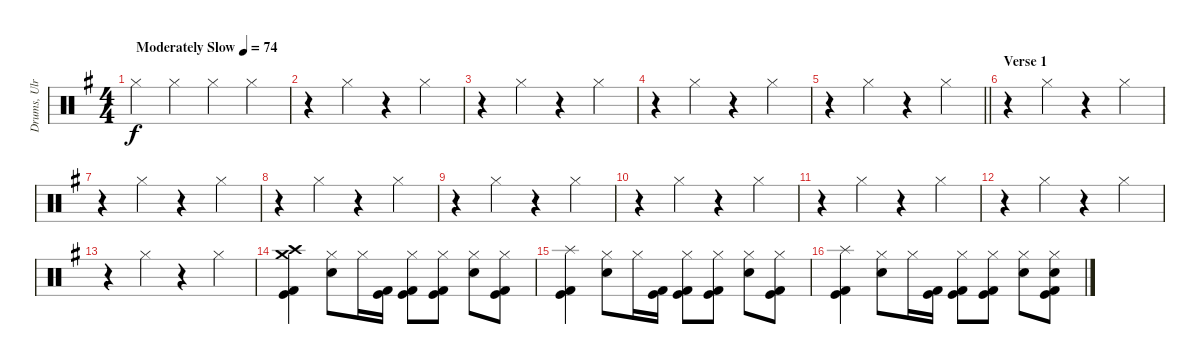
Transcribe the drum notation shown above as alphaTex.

\track ("Drums, Ulrich" "Drums, Ulr") {instrument percussion}
\staff {score}
\articulation defaults
\ts (4 4)
\tempo (74 "Moderately Slow")
\clef neutral
\ks g "Hi-Hat (closed)".4{dy f} "Hi-Hat (closed)".4 "Hi-Hat (closed)".4 "Hi-Hat (closed)".4
|
r.4 "Hi-Hat (closed)".4 r.4 "Hi-Hat (closed)".4 |
r.4 "Hi-Hat (closed)".4 r.4 "Hi-Hat (closed)".4 |
r.4 "Hi-Hat (closed)".4 r.4 "Hi-Hat (closed)".4 |
\barLineRight lightlight
r.4 "Hi-Hat (closed)".4 r.4 "Hi-Hat (closed)".4 |
\section ("" "Verse 1")
r.4 "Hi-Hat (closed)".4 r.4 "Hi-Hat (closed)".4 |
r.4 "Hi-Hat (closed)".4 r.4 "Hi-Hat (closed)".4 |
r.4 "Hi-Hat (closed)".4 r.4 "Hi-Hat (closed)".4 |
r.4 "Hi-Hat (closed)".4 r.4 "Hi-Hat (closed)".4 |
r.4 "Hi-Hat (closed)".4 r.4 "Hi-Hat (closed)".4 |
r.4 "Hi-Hat (closed)".4 r.4 "Hi-Hat (closed)".4 |
r.4 "Hi-Hat (closed)".4 r.4 "Hi-Hat (closed)".4 |
r.4 "Hi-Hat (closed)".4 r.4 "Hi-Hat (closed)".4 |
("Crash medium (hit)" "Crash high (hit)" "Kick (hit) 2" "Kick (hit)").4 ("Hi-Hat (closed)" "Electric Snare (hit)").8 "Hi-Hat (closed)".16 ("Kick (hit) 2" "Kick (hit)").16 ("Hi-Hat (closed)" "Kick (hit) 2" "Kick (hit)").8 ("Hi-Hat (closed)" "Kick (hit)" "Kick (hit) 2").8 ("Hi-Hat (closed)" "Electric Snare (hit)").8 ("Hi-Hat (closed)" "Kick (hit) 2" "Kick (hit)").8 |
("Splash (hit)" "Kick (hit) 2" "Kick (hit)").4 ("Hi-Hat (closed)" "Electric Snare (hit)").8 "Hi-Hat (closed)".16 ("Kick (hit) 2" "Kick (hit)").16 ("Hi-Hat (closed)" "Kick (hit) 2" "Kick (hit)").8 ("Hi-Hat (closed)" "Kick (hit)" "Kick (hit) 2").8 ("Hi-Hat (closed)" "Electric Snare (hit)").8 ("Hi-Hat (closed)" "Kick (hit) 2" "Kick (hit)").8 |
("Splash (hit)" "Kick (hit) 2" "Kick (hit)").4 ("Hi-Hat (closed)" "Electric Snare (hit)").8 "Hi-Hat (closed)".16 ("Kick (hit) 2" "Kick (hit)").16 ("Hi-Hat (closed)" "Kick (hit) 2" "Kick (hit)").8 ("Hi-Hat (closed)" "Kick (hit)" "Kick (hit) 2").8 ("Hi-Hat (closed)" "Electric Snare (hit)").8 ("Hi-Hat (closed)" "Electric Snare (hit)" "Kick (hit) 2" "Kick (hit)").8
